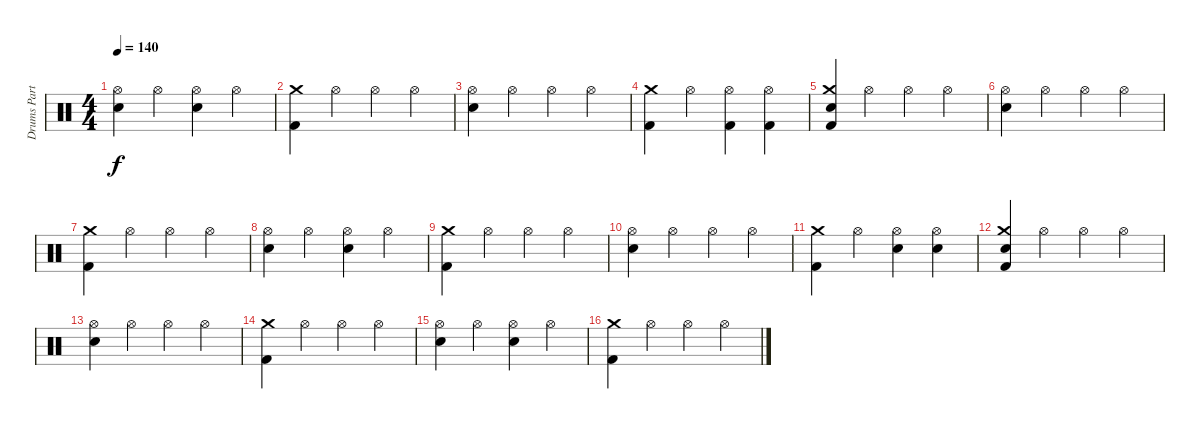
\track ("Drums Part" "Drums Part") {instrument percussion}
\staff {score}
\articulation defaults
\ts (4 4)
\tempo 140
\clef neutral
\ks c
("Hi-Hat (open)" "Electric Snare (hit)").4{dy f} "Hi-Hat (open)".4 ("Hi-Hat (open)" "Electric Snare (hit)").4 "Hi-Hat (open)".4 |
("Crash medium (hit)" "Kick (hit) 2").4 "Hi-Hat (open)".4 "Hi-Hat (open)".4 "Hi-Hat (open)".4 |
("Hi-Hat (open)" "Electric Snare (hit)").4 "Hi-Hat (open)".4 "Hi-Hat (open)".4 "Hi-Hat (open)".4 |
("Crash medium (hit)" "Kick (hit) 2").4 "Hi-Hat (open)".4 ("Hi-Hat (open)" "Kick (hit) 2").4 ("Hi-Hat (open)" "Kick (hit) 2").4 |
("Crash medium (hit)" "Electric Snare (hit)" "Kick (hit) 2").4 "Hi-Hat (open)".4 "Hi-Hat (open)".4 "Hi-Hat (open)".4 |
("Hi-Hat (open)" "Electric Snare (hit)").4 "Hi-Hat (open)".4 "Hi-Hat (open)".4 "Hi-Hat (open)".4 |
("Crash medium (hit)" "Kick (hit) 2").4 "Hi-Hat (open)".4 "Hi-Hat (open)".4 "Hi-Hat (open)".4 |
("Hi-Hat (open)" "Electric Snare (hit)").4 "Hi-Hat (open)".4 ("Hi-Hat (open)" "Electric Snare (hit)").4 "Hi-Hat (open)".4 |
("Crash medium (hit)" "Kick (hit) 2").4 "Hi-Hat (open)".4 "Hi-Hat (open)".4 "Hi-Hat (open)".4 |
("Hi-Hat (open)" "Electric Snare (hit)").4 "Hi-Hat (open)".4 "Hi-Hat (open)".4 "Hi-Hat (open)".4 |
("Crash medium (hit)" "Kick (hit) 2").4 "Hi-Hat (open)".4 ("Hi-Hat (open)" "Electric Snare (hit)").4 ("Hi-Hat (open)" "Electric Snare (hit)").4 |
("Crash medium (hit)" "Electric Snare (hit)" "Kick (hit) 2").4 "Hi-Hat (open)".4 "Hi-Hat (open)".4 "Hi-Hat (open)".4 |
("Hi-Hat (open)" "Electric Snare (hit)").4 "Hi-Hat (open)".4 "Hi-Hat (open)".4 "Hi-Hat (open)".4 |
("Crash medium (hit)" "Kick (hit) 2").4 "Hi-Hat (open)".4 "Hi-Hat (open)".4 "Hi-Hat (open)".4 |
("Hi-Hat (open)" "Electric Snare (hit)").4 "Hi-Hat (open)".4 ("Hi-Hat (open)" "Electric Snare (hit)").4 "Hi-Hat (open)".4 |
("Crash medium (hit)" "Kick (hit) 2").4 "Hi-Hat (open)".4 "Hi-Hat (open)".4 "Hi-Hat (open)".4
